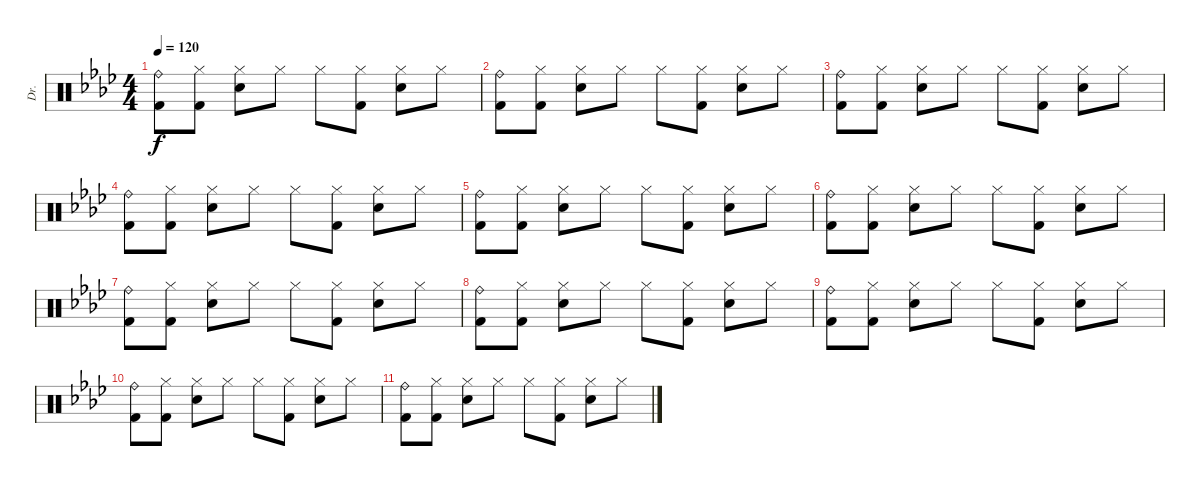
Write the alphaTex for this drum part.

\track ("Dr." "Dr.") {instrument percussion}
\staff {score}
\articulation defaults
\ts (4 4)
\tempo 120
\clef neutral
\ks ab
("Ride (bell)" "Kick (hit) 2").8{dy f} ("Hi-Hat (closed)" "Kick (hit) 2").8 ("Hi-Hat (closed)" "Electric Snare (hit)").8 "Hi-Hat (closed)".8 "Hi-Hat (closed)".8 ("Hi-Hat (closed)" "Kick (hit) 2").8 ("Hi-Hat (closed)" "Electric Snare (hit)").8 "Hi-Hat (closed)".8 |
("Ride (bell)" "Kick (hit) 2").8 ("Hi-Hat (closed)" "Kick (hit) 2").8 ("Hi-Hat (closed)" "Electric Snare (hit)").8 "Hi-Hat (closed)".8 "Hi-Hat (closed)".8 ("Hi-Hat (closed)" "Kick (hit) 2").8 ("Hi-Hat (closed)" "Electric Snare (hit)").8 "Hi-Hat (closed)".8 |
("Ride (bell)" "Kick (hit) 2").8 ("Hi-Hat (closed)" "Kick (hit) 2").8 ("Hi-Hat (closed)" "Electric Snare (hit)").8 "Hi-Hat (closed)".8 "Hi-Hat (closed)".8 ("Hi-Hat (closed)" "Kick (hit) 2").8 ("Hi-Hat (closed)" "Electric Snare (hit)").8 "Hi-Hat (closed)".8 |
("Ride (bell)" "Kick (hit) 2").8 ("Hi-Hat (closed)" "Kick (hit) 2").8 ("Hi-Hat (closed)" "Electric Snare (hit)").8 "Hi-Hat (closed)".8 "Hi-Hat (closed)".8 ("Hi-Hat (closed)" "Kick (hit) 2").8 ("Hi-Hat (closed)" "Electric Snare (hit)").8 "Hi-Hat (closed)".8 |
("Ride (bell)" "Kick (hit) 2").8 ("Hi-Hat (closed)" "Kick (hit) 2").8 ("Hi-Hat (closed)" "Electric Snare (hit)").8 "Hi-Hat (closed)".8 "Hi-Hat (closed)".8 ("Hi-Hat (closed)" "Kick (hit) 2").8 ("Hi-Hat (closed)" "Electric Snare (hit)").8 "Hi-Hat (closed)".8 |
("Ride (bell)" "Kick (hit) 2").8 ("Hi-Hat (closed)" "Kick (hit) 2").8 ("Hi-Hat (closed)" "Electric Snare (hit)").8 "Hi-Hat (closed)".8 "Hi-Hat (closed)".8 ("Hi-Hat (closed)" "Kick (hit) 2").8 ("Hi-Hat (closed)" "Electric Snare (hit)").8 "Hi-Hat (closed)".8 |
("Ride (bell)" "Kick (hit) 2").8 ("Hi-Hat (closed)" "Kick (hit) 2").8 ("Hi-Hat (closed)" "Electric Snare (hit)").8 "Hi-Hat (closed)".8 "Hi-Hat (closed)".8 ("Hi-Hat (closed)" "Kick (hit) 2").8 ("Hi-Hat (closed)" "Electric Snare (hit)").8 "Hi-Hat (closed)".8 |
("Ride (bell)" "Kick (hit) 2").8 ("Hi-Hat (closed)" "Kick (hit) 2").8 ("Hi-Hat (closed)" "Electric Snare (hit)").8 "Hi-Hat (closed)".8 "Hi-Hat (closed)".8 ("Hi-Hat (closed)" "Kick (hit) 2").8 ("Hi-Hat (closed)" "Electric Snare (hit)").8 "Hi-Hat (closed)".8 |
("Ride (bell)" "Kick (hit) 2").8 ("Hi-Hat (closed)" "Kick (hit) 2").8 ("Hi-Hat (closed)" "Electric Snare (hit)").8 "Hi-Hat (closed)".8 "Hi-Hat (closed)".8 ("Hi-Hat (closed)" "Kick (hit) 2").8 ("Hi-Hat (closed)" "Electric Snare (hit)").8 "Hi-Hat (closed)".8 |
("Ride (bell)" "Kick (hit) 2").8 ("Hi-Hat (closed)" "Kick (hit) 2").8 ("Hi-Hat (closed)" "Electric Snare (hit)").8 "Hi-Hat (closed)".8 "Hi-Hat (closed)".8 ("Hi-Hat (closed)" "Kick (hit) 2").8 ("Hi-Hat (closed)" "Electric Snare (hit)").8 "Hi-Hat (closed)".8 |
("Ride (bell)" "Kick (hit) 2").8 ("Hi-Hat (closed)" "Kick (hit) 2").8 ("Hi-Hat (closed)" "Electric Snare (hit)").8 "Hi-Hat (closed)".8 "Hi-Hat (closed)".8 ("Hi-Hat (closed)" "Kick (hit) 2").8 ("Hi-Hat (closed)" "Electric Snare (hit)").8 "Hi-Hat (closed)".8
